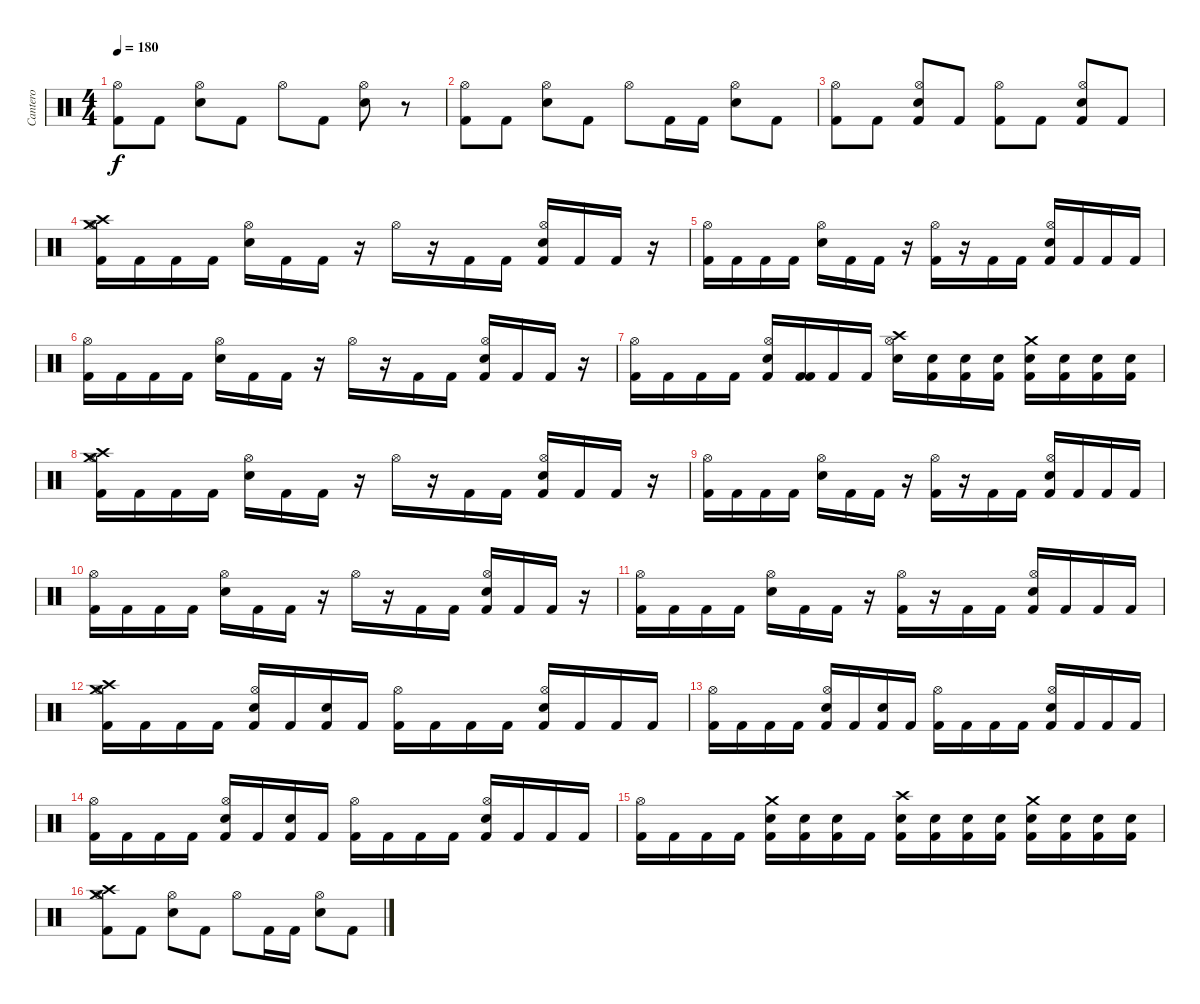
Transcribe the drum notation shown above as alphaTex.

\track ("Cantero" "Cantero") {instrument percussion}
\staff {score}
\articulation defaults
\ts (4 4)
\tempo 180
\clef neutral
\ks c
("Kick (hit) 2" "Hi-Hat (open)").8{dy f} "Kick (hit) 2".8 ("Electric Snare (hit)" "Hi-Hat (open)").8 "Kick (hit) 2".8 "Hi-Hat (open)".8 "Kick (hit) 2".8 ("Electric Snare (hit)" "Hi-Hat (open)").8 r.8 |
("Kick (hit) 2" "Hi-Hat (open)").8 "Kick (hit) 2".8 ("Electric Snare (hit)" "Hi-Hat (open)").8 "Kick (hit) 2".8 "Hi-Hat (open)".8 "Kick (hit) 2".16 "Kick (hit) 2".16 ("Electric Snare (hit)" "Hi-Hat (open)").8 "Kick (hit) 2".8 |
("Kick (hit) 2" "Hi-Hat (open)").8 "Kick (hit) 2".8 ("Electric Snare (hit)" "Hi-Hat (open)" "Kick (hit) 2").8 "Kick (hit) 2".8 ("Hi-Hat (open)" "Kick (hit) 2").8 "Kick (hit) 2".8 ("Electric Snare (hit)" "Hi-Hat (open)" "Kick (hit) 2").8 "Kick (hit) 2".8 |
("Kick (hit) 2" "Hi-Hat (open)" "Crash high (hit)" "Crash medium (hit)").16 "Kick (hit) 2".16 "Kick (hit) 2".16 "Kick (hit) 2".16 ("Electric Snare (hit)" "Hi-Hat (open)").16 "Kick (hit) 2".16 "Kick (hit) 2".16 r.16 "Hi-Hat (open)".16 r.16 "Kick (hit) 2".16 "Kick (hit) 2".16 ("Kick (hit) 2" "Electric Snare (hit)" "Hi-Hat (open)").16 "Kick (hit) 2".16 "Kick (hit) 2".16 r.16 |
("Kick (hit) 2" "Hi-Hat (open)").16 "Kick (hit) 2".16 "Kick (hit) 2".16 "Kick (hit) 2".16 ("Electric Snare (hit)" "Hi-Hat (open)").16 "Kick (hit) 2".16 "Kick (hit) 2".16 r.16 ("Kick (hit) 2" "Hi-Hat (open)").16 r.16 "Kick (hit) 2".16 "Kick (hit) 2".16 ("Kick (hit) 2" "Electric Snare (hit)" "Hi-Hat (open)").16 "Kick (hit) 2".16 "Kick (hit) 2".16 "Kick (hit) 2".16 |
("Kick (hit) 2" "Hi-Hat (open)").16 "Kick (hit) 2".16 "Kick (hit) 2".16 "Kick (hit) 2".16 ("Electric Snare (hit)" "Hi-Hat (open)").16 "Kick (hit) 2".16 "Kick (hit) 2".16 r.16 "Hi-Hat (open)".16 r.16 "Kick (hit) 2".16 "Kick (hit) 2".16 ("Kick (hit) 2" "Electric Snare (hit)" "Hi-Hat (open)").16 "Kick (hit) 2".16 "Kick (hit) 2".16 r.16 |
("Kick (hit) 2" "Hi-Hat (open)").16 "Kick (hit) 2".16 "Kick (hit) 2".16 "Kick (hit) 2".16 ("Kick (hit) 2" "Electric Snare (hit)" "Hi-Hat (open)").16 ("Kick (hit) 2" "Kick (hit) 2").16 "Kick (hit) 2".16 "Kick (hit) 2".16 ("Electric Snare (hit)" "Hi-Hat (open)" "Crash high (hit)").16 ("Kick (hit) 2" "Electric Snare (hit)").16 ("Kick (hit) 2" "Electric Snare (hit)").16 ("Kick (hit) 2" "Electric Snare (hit)").16 ("Kick (hit) 2" "Electric Snare (hit)" "Crash medium (hit)").16 ("Kick (hit) 2" "Electric Snare (hit)").16 ("Kick (hit) 2" "Electric Snare (hit)").16 ("Kick (hit) 2" "Electric Snare (hit)").16 |
("Kick (hit) 2" "Hi-Hat (open)" "Crash high (hit)" "Crash medium (hit)").16 "Kick (hit) 2".16 "Kick (hit) 2".16 "Kick (hit) 2".16 ("Electric Snare (hit)" "Hi-Hat (open)").16 "Kick (hit) 2".16 "Kick (hit) 2".16 r.16 "Hi-Hat (open)".16 r.16 "Kick (hit) 2".16 "Kick (hit) 2".16 ("Kick (hit) 2" "Electric Snare (hit)" "Hi-Hat (open)").16 "Kick (hit) 2".16 "Kick (hit) 2".16 r.16 |
("Kick (hit) 2" "Hi-Hat (open)").16 "Kick (hit) 2".16 "Kick (hit) 2".16 "Kick (hit) 2".16 ("Electric Snare (hit)" "Hi-Hat (open)").16 "Kick (hit) 2".16 "Kick (hit) 2".16 r.16 ("Kick (hit) 2" "Hi-Hat (open)").16 r.16 "Kick (hit) 2".16 "Kick (hit) 2".16 ("Kick (hit) 2" "Electric Snare (hit)" "Hi-Hat (open)").16 "Kick (hit) 2".16 "Kick (hit) 2".16 "Kick (hit) 2".16 |
("Kick (hit) 2" "Hi-Hat (open)").16 "Kick (hit) 2".16 "Kick (hit) 2".16 "Kick (hit) 2".16 ("Electric Snare (hit)" "Hi-Hat (open)").16 "Kick (hit) 2".16 "Kick (hit) 2".16 r.16 "Hi-Hat (open)".16 r.16 "Kick (hit) 2".16 "Kick (hit) 2".16 ("Kick (hit) 2" "Electric Snare (hit)" "Hi-Hat (open)").16 "Kick (hit) 2".16 "Kick (hit) 2".16 r.16 |
("Kick (hit) 2" "Hi-Hat (open)").16 "Kick (hit) 2".16 "Kick (hit) 2".16 "Kick (hit) 2".16 ("Electric Snare (hit)" "Hi-Hat (open)").16 "Kick (hit) 2".16 "Kick (hit) 2".16 r.16 ("Kick (hit) 2" "Hi-Hat (open)").16 r.16 "Kick (hit) 2".16 "Kick (hit) 2".16 ("Kick (hit) 2" "Electric Snare (hit)" "Hi-Hat (open)").16 "Kick (hit) 2".16 "Kick (hit) 2".16 "Kick (hit) 2".16 |
("Kick (hit) 2" "Hi-Hat (open)" "Crash high (hit)" "Crash medium (hit)").16 "Kick (hit) 2".16 "Kick (hit) 2".16 "Kick (hit) 2".16 ("Kick (hit) 2" "Electric Snare (hit)" "Hi-Hat (open)").16 "Kick (hit) 2".16 ("Kick (hit) 2" "Electric Snare (hit)").16 "Kick (hit) 2".16 ("Kick (hit) 2" "Hi-Hat (open)").16 "Kick (hit) 2".16 "Kick (hit) 2".16 "Kick (hit) 2".16 ("Kick (hit) 2" "Electric Snare (hit)" "Hi-Hat (open)").16 "Kick (hit) 2".16 "Kick (hit) 2".16 "Kick (hit) 2".16 |
("Kick (hit) 2" "Hi-Hat (open)").16 "Kick (hit) 2".16 "Kick (hit) 2".16 "Kick (hit) 2".16 ("Kick (hit) 2" "Electric Snare (hit)" "Hi-Hat (open)").16 "Kick (hit) 2".16 ("Kick (hit) 2" "Electric Snare (hit)").16 "Kick (hit) 2".16 ("Kick (hit) 2" "Hi-Hat (open)").16 "Kick (hit) 2".16 "Kick (hit) 2".16 "Kick (hit) 2".16 ("Kick (hit) 2" "Electric Snare (hit)" "Hi-Hat (open)").16 "Kick (hit) 2".16 "Kick (hit) 2".16 "Kick (hit) 2".16 |
("Kick (hit) 2" "Hi-Hat (open)").16 "Kick (hit) 2".16 "Kick (hit) 2".16 "Kick (hit) 2".16 ("Kick (hit) 2" "Electric Snare (hit)" "Hi-Hat (open)").16 "Kick (hit) 2".16 ("Kick (hit) 2" "Electric Snare (hit)").16 "Kick (hit) 2".16 ("Kick (hit) 2" "Hi-Hat (open)").16 "Kick (hit) 2".16 "Kick (hit) 2".16 "Kick (hit) 2".16 ("Kick (hit) 2" "Electric Snare (hit)" "Hi-Hat (open)").16 "Kick (hit) 2".16 "Kick (hit) 2".16 "Kick (hit) 2".16 |
("Kick (hit) 2" "Hi-Hat (open)").16 "Kick (hit) 2".16 "Kick (hit) 2".16 "Kick (hit) 2".16 ("Kick (hit) 2" "Electric Snare (hit)" "Crash medium (hit)").16 ("Kick (hit) 2" "Electric Snare (hit)").16 ("Kick (hit) 2" "Electric Snare (hit)").16 "Kick (hit) 2".16 ("Kick (hit) 2" "Electric Snare (hit)" "Crash high (hit)").16 ("Kick (hit) 2" "Electric Snare (hit)").16 ("Kick (hit) 2" "Electric Snare (hit)").16 ("Kick (hit) 2" "Electric Snare (hit)").16 ("Kick (hit) 2" "Electric Snare (hit)" "Crash medium (hit)").16 ("Kick (hit) 2" "Electric Snare (hit)").16 ("Kick (hit) 2" "Electric Snare (hit)").16 ("Kick (hit) 2" "Electric Snare (hit)").16 |
("Kick (hit) 2" "Hi-Hat (open)" "Crash high (hit)" "Crash medium (hit)").8 "Kick (hit) 2".8 ("Electric Snare (hit)" "Hi-Hat (open)").8 "Kick (hit) 2".8 "Hi-Hat (open)".8 "Kick (hit) 2".16 "Kick (hit) 2".16 ("Electric Snare (hit)" "Hi-Hat (open)").8 "Kick (hit) 2".8
